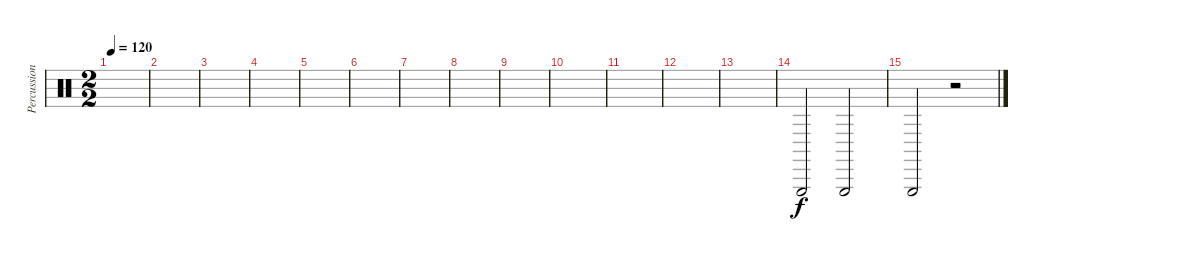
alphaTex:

\track ("Percussions" "Percussion") {instrument percussion}
\staff {score}
\articulation defaults
\ts (2 2)
\tempo 120
\clef neutral
\ks c
|
|
|
|
|
|
|
|
|
|
|
|
|
"Triangle (hit)".2 "Triangle (hit)".2 |
"Triangle (hit)".2 r.2
